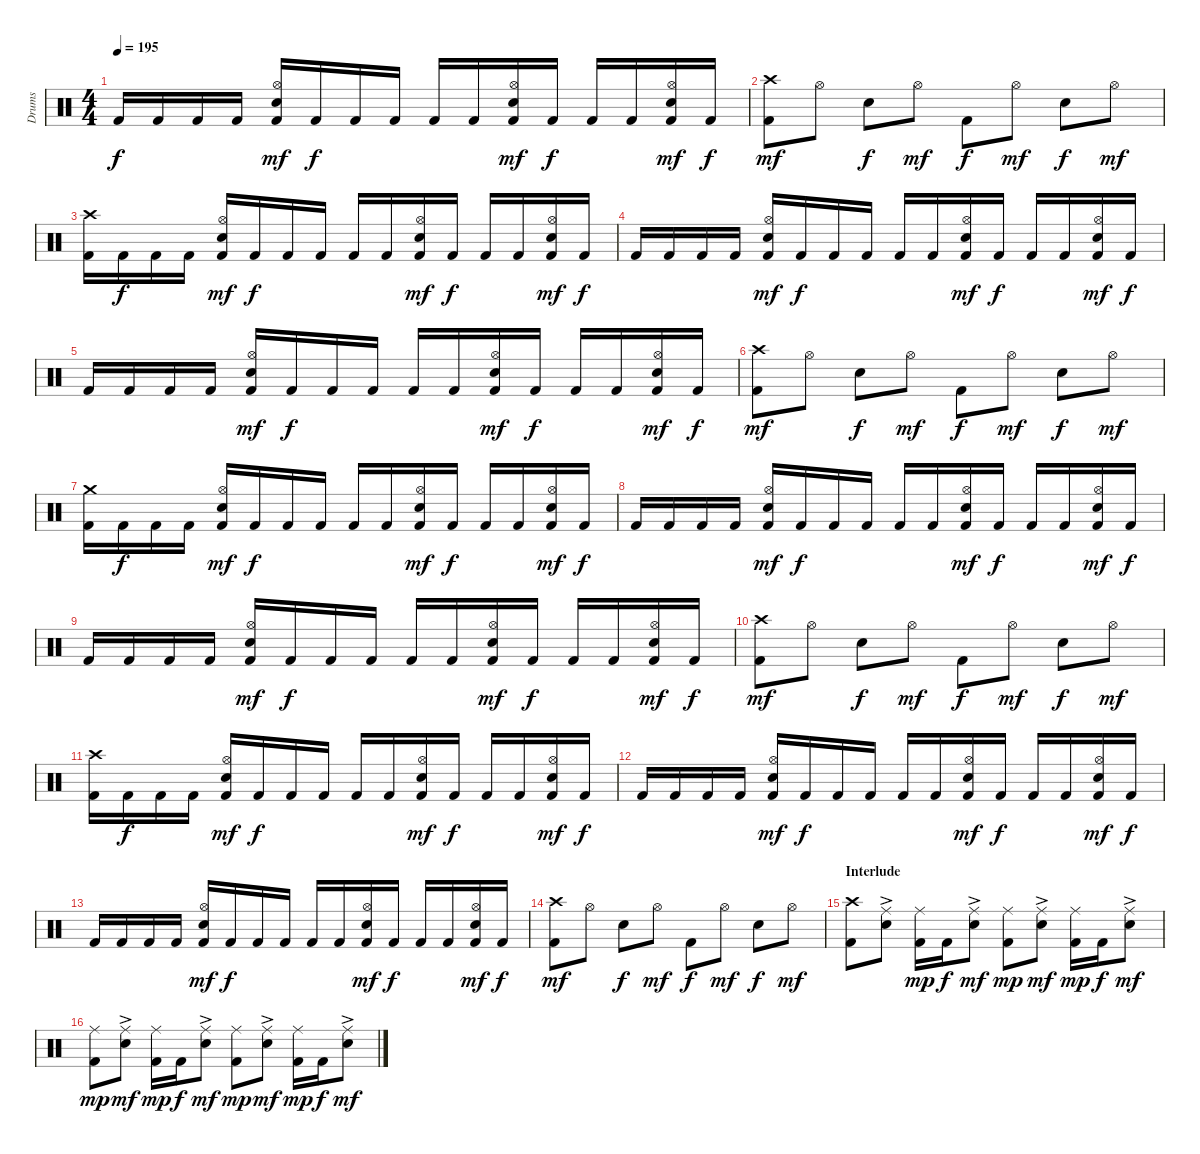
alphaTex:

\track ("Drums" "Drums") {instrument percussion}
\staff {score}
\articulation defaults
\ts (4 4)
\tempo 195
\clef neutral
\ks c "Kick (hit) 2".16{dy f} "Kick (hit) 2".16 "Kick (hit) 2".16 "Kick (hit) 2".16
("Hi-Hat (open)" "Electric Snare (hit)" "Kick (hit) 2").16{dy mf} "Kick (hit) 2".16{dy f} "Kick (hit) 2".16 "Kick (hit) 2".16 "Kick (hit) 2".16 "Kick (hit) 2".16 ("Hi-Hat (open)" "Electric Snare (hit)" "Kick (hit) 2").16{dy mf} "Kick (hit) 2".16{dy f} "Kick (hit) 2".16 "Kick (hit) 2".16 ("Hi-Hat (open)" "Electric Snare (hit)" "Kick (hit) 2").16{dy mf} "Kick (hit) 2".16{dy f} |
("Crash high (hit)" "Kick (hit) 2").8{dy mf} "Hi-Hat (open)".8 "Electric Snare (hit)".8{dy f} "Hi-Hat (open)".8{dy mf} "Kick (hit) 2".8{dy f} "Hi-Hat (open)".8{dy mf} "Electric Snare (hit)".8{dy f} "Hi-Hat (open)".8{dy mf} |
("Crash high (hit)" "Kick (hit) 2").16 "Kick (hit) 2".16{dy f} "Kick (hit) 2".16 "Kick (hit) 2".16 ("Hi-Hat (open)" "Electric Snare (hit)" "Kick (hit) 2").16{dy mf} "Kick (hit) 2".16{dy f} "Kick (hit) 2".16 "Kick (hit) 2".16 "Kick (hit) 2".16 "Kick (hit) 2".16 ("Hi-Hat (open)" "Electric Snare (hit)" "Kick (hit) 2").16{dy mf} "Kick (hit) 2".16{dy f} "Kick (hit) 2".16 "Kick (hit) 2".16 ("Hi-Hat (open)" "Electric Snare (hit)" "Kick (hit) 2").16{dy mf} "Kick (hit) 2".16{dy f} |
"Kick (hit) 2".16 "Kick (hit) 2".16 "Kick (hit) 2".16 "Kick (hit) 2".16 ("Hi-Hat (open)" "Electric Snare (hit)" "Kick (hit) 2").16{dy mf} "Kick (hit) 2".16{dy f} "Kick (hit) 2".16 "Kick (hit) 2".16 "Kick (hit) 2".16 "Kick (hit) 2".16 ("Hi-Hat (open)" "Electric Snare (hit)" "Kick (hit) 2").16{dy mf} "Kick (hit) 2".16{dy f} "Kick (hit) 2".16 "Kick (hit) 2".16 ("Hi-Hat (open)" "Electric Snare (hit)" "Kick (hit) 2").16{dy mf} "Kick (hit) 2".16{dy f} |
"Kick (hit) 2".16 "Kick (hit) 2".16 "Kick (hit) 2".16 "Kick (hit) 2".16 ("Hi-Hat (open)" "Electric Snare (hit)" "Kick (hit) 2").16{dy mf} "Kick (hit) 2".16{dy f} "Kick (hit) 2".16 "Kick (hit) 2".16 "Kick (hit) 2".16 "Kick (hit) 2".16 ("Hi-Hat (open)" "Electric Snare (hit)" "Kick (hit) 2").16{dy mf} "Kick (hit) 2".16{dy f} "Kick (hit) 2".16 "Kick (hit) 2".16 ("Hi-Hat (open)" "Electric Snare (hit)" "Kick (hit) 2").16{dy mf} "Kick (hit) 2".16{dy f} |
("Crash high (hit)" "Kick (hit) 2").8{dy mf} "Hi-Hat (open)".8 "Electric Snare (hit)".8{dy f} "Hi-Hat (open)".8{dy mf} "Kick (hit) 2".8{dy f} "Hi-Hat (open)".8{dy mf} "Electric Snare (hit)".8{dy f} "Hi-Hat (open)".8{dy mf} |
("Crash medium (hit)" "Kick (hit) 2").16 "Kick (hit) 2".16{dy f} "Kick (hit) 2".16 "Kick (hit) 2".16 ("Hi-Hat (open)" "Electric Snare (hit)" "Kick (hit) 2").16{dy mf} "Kick (hit) 2".16{dy f} "Kick (hit) 2".16 "Kick (hit) 2".16 "Kick (hit) 2".16 "Kick (hit) 2".16 ("Hi-Hat (open)" "Electric Snare (hit)" "Kick (hit) 2").16{dy mf} "Kick (hit) 2".16{dy f} "Kick (hit) 2".16 "Kick (hit) 2".16 ("Hi-Hat (open)" "Electric Snare (hit)" "Kick (hit) 2").16{dy mf} "Kick (hit) 2".16{dy f} |
"Kick (hit) 2".16 "Kick (hit) 2".16 "Kick (hit) 2".16 "Kick (hit) 2".16 ("Hi-Hat (open)" "Electric Snare (hit)" "Kick (hit) 2").16{dy mf} "Kick (hit) 2".16{dy f} "Kick (hit) 2".16 "Kick (hit) 2".16 "Kick (hit) 2".16 "Kick (hit) 2".16 ("Hi-Hat (open)" "Electric Snare (hit)" "Kick (hit) 2").16{dy mf} "Kick (hit) 2".16{dy f} "Kick (hit) 2".16 "Kick (hit) 2".16 ("Hi-Hat (open)" "Electric Snare (hit)" "Kick (hit) 2").16{dy mf} "Kick (hit) 2".16{dy f} |
"Kick (hit) 2".16 "Kick (hit) 2".16 "Kick (hit) 2".16 "Kick (hit) 2".16 ("Hi-Hat (open)" "Electric Snare (hit)" "Kick (hit) 2").16{dy mf} "Kick (hit) 2".16{dy f} "Kick (hit) 2".16 "Kick (hit) 2".16 "Kick (hit) 2".16 "Kick (hit) 2".16 ("Hi-Hat (open)" "Electric Snare (hit)" "Kick (hit) 2").16{dy mf} "Kick (hit) 2".16{dy f} "Kick (hit) 2".16 "Kick (hit) 2".16 ("Hi-Hat (open)" "Electric Snare (hit)" "Kick (hit) 2").16{dy mf} "Kick (hit) 2".16{dy f} |
("Crash high (hit)" "Kick (hit) 2").8{dy mf} "Hi-Hat (open)".8 "Electric Snare (hit)".8{dy f} "Hi-Hat (open)".8{dy mf} "Kick (hit) 2".8{dy f} "Hi-Hat (open)".8{dy mf} "Electric Snare (hit)".8{dy f} "Hi-Hat (open)".8{dy mf} |
("Crash high (hit)" "Kick (hit) 2").16 "Kick (hit) 2".16{dy f} "Kick (hit) 2".16 "Kick (hit) 2".16 ("Hi-Hat (open)" "Electric Snare (hit)" "Kick (hit) 2").16{dy mf} "Kick (hit) 2".16{dy f} "Kick (hit) 2".16 "Kick (hit) 2".16 "Kick (hit) 2".16 "Kick (hit) 2".16 ("Hi-Hat (open)" "Electric Snare (hit)" "Kick (hit) 2").16{dy mf} "Kick (hit) 2".16{dy f} "Kick (hit) 2".16 "Kick (hit) 2".16 ("Hi-Hat (open)" "Electric Snare (hit)" "Kick (hit) 2").16{dy mf} "Kick (hit) 2".16{dy f} |
"Kick (hit) 2".16 "Kick (hit) 2".16 "Kick (hit) 2".16 "Kick (hit) 2".16 ("Hi-Hat (open)" "Electric Snare (hit)" "Kick (hit) 2").16{dy mf} "Kick (hit) 2".16{dy f} "Kick (hit) 2".16 "Kick (hit) 2".16 "Kick (hit) 2".16 "Kick (hit) 2".16 ("Hi-Hat (open)" "Electric Snare (hit)" "Kick (hit) 2").16{dy mf} "Kick (hit) 2".16{dy f} "Kick (hit) 2".16 "Kick (hit) 2".16 ("Hi-Hat (open)" "Electric Snare (hit)" "Kick (hit) 2").16{dy mf} "Kick (hit) 2".16{dy f} |
"Kick (hit) 2".16 "Kick (hit) 2".16 "Kick (hit) 2".16 "Kick (hit) 2".16 ("Hi-Hat (open)" "Electric Snare (hit)" "Kick (hit) 2").16{dy mf} "Kick (hit) 2".16{dy f} "Kick (hit) 2".16 "Kick (hit) 2".16 "Kick (hit) 2".16 "Kick (hit) 2".16 ("Hi-Hat (open)" "Electric Snare (hit)" "Kick (hit) 2").16{dy mf} "Kick (hit) 2".16{dy f} "Kick (hit) 2".16 "Kick (hit) 2".16 ("Hi-Hat (open)" "Electric Snare (hit)" "Kick (hit) 2").16{dy mf} "Kick (hit) 2".16{dy f} |
("Crash high (hit)" "Kick (hit) 2").8{dy mf} "Hi-Hat (open)".8 "Electric Snare (hit)".8{dy f} "Hi-Hat (open)".8{dy mf} "Kick (hit) 2".8{dy f} "Hi-Hat (open)".8{dy mf} "Electric Snare (hit)".8{dy f} "Hi-Hat (open)".8{dy mf} |
\section ("" "Interlude")
("Crash high (hit)" "Kick (hit) 2").8 ("Ride (middle)"{ac} "Electric Snare (hit)").8 ("Ride (middle)" "Kick (hit) 2").16{dy mp} "Kick (hit) 2".16{dy f} ("Ride (middle)"{ac} "Electric Snare (hit)").8{dy mf} ("Ride (middle)" "Kick (hit) 2").8{dy mp} ("Ride (middle)"{ac} "Electric Snare (hit)").8{dy mf} ("Ride (middle)" "Kick (hit) 2").16{dy mp} "Kick (hit) 2".16{dy f} ("Ride (middle)"{ac} "Electric Snare (hit)").8{dy mf} |
("Ride (middle)" "Kick (hit) 2").8{dy mp} ("Ride (middle)"{ac} "Electric Snare (hit)").8{dy mf} ("Ride (middle)" "Kick (hit) 2").16{dy mp} "Kick (hit) 2".16{dy f} ("Ride (middle)"{ac} "Electric Snare (hit)").8{dy mf} ("Ride (middle)" "Kick (hit) 2").8{dy mp} ("Ride (middle)"{ac} "Electric Snare (hit)").8{dy mf} ("Ride (middle)" "Kick (hit) 2").16{dy mp} "Kick (hit) 2".16{dy f} ("Ride (middle)"{ac} "Electric Snare (hit)").8{dy mf}
